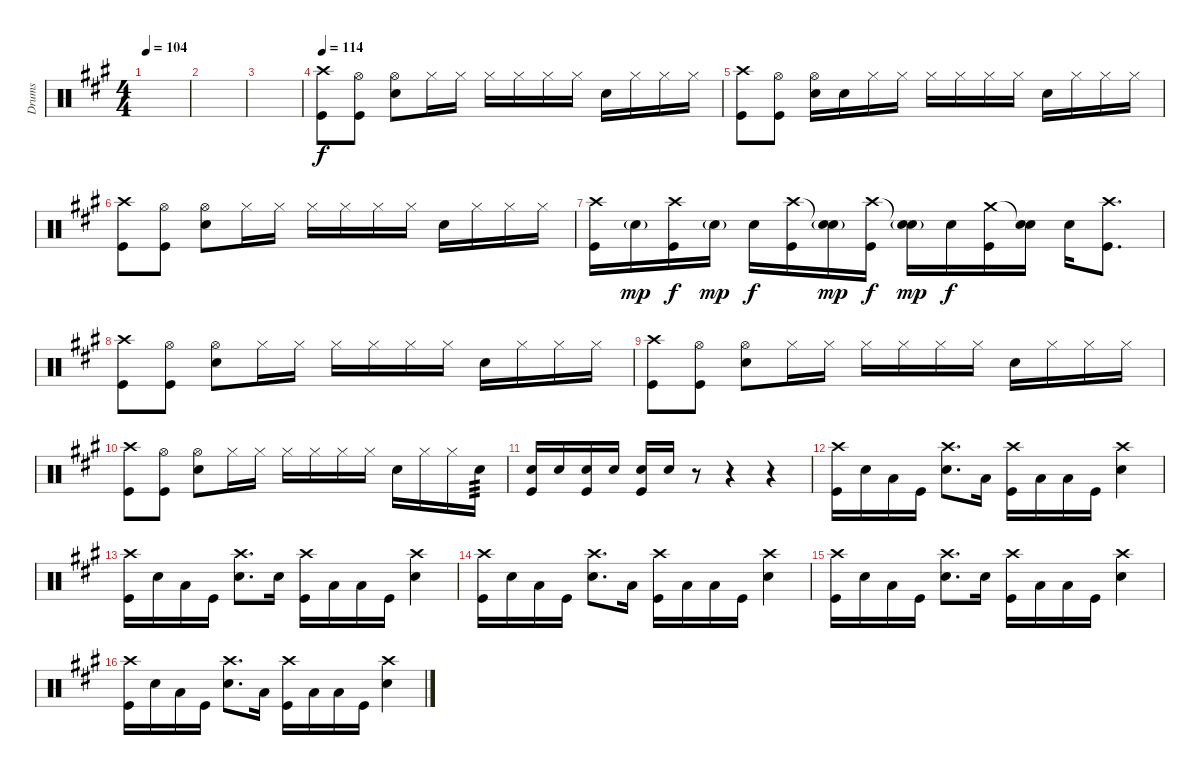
\track ("Drums" "Drums") {instrument percussion}
\staff {score}
\articulation defaults
\ts (4 4)
\tempo 104
\clef neutral
\ks a
|
|
|
\tempo 114
("Crash high (hit)" "Kick (hit)").8 ("Hi-Hat (open)" "Kick (hit)").8 ("Hi-Hat (open)" "Electric Snare (hit)").8 "Hi-Hat (closed)".16 "Hi-Hat (closed)".16 "Hi-Hat (closed)".16 "Hi-Hat (closed)".16 "Hi-Hat (closed)".16 "Hi-Hat (closed)".16 "Electric Snare (hit)".16 "Hi-Hat (closed)".16 "Hi-Hat (closed)".16 "Hi-Hat (closed)".16 |
("Crash high (hit)" "Kick (hit)").8 ("Hi-Hat (open)" "Kick (hit)").8 ("Hi-Hat (open)" "Electric Snare (hit)").16 "Electric Snare (hit)".16 "Hi-Hat (closed)".16 "Hi-Hat (closed)".16 "Hi-Hat (closed)".16 "Hi-Hat (closed)".16 "Hi-Hat (closed)".16 "Hi-Hat (closed)".16 "Electric Snare (hit)".16 "Hi-Hat (closed)".16 "Hi-Hat (closed)".16 "Hi-Hat (closed)".16 |
("Crash high (hit)" "Kick (hit)").8 ("Hi-Hat (open)" "Kick (hit)").8 ("Hi-Hat (open)" "Electric Snare (hit)").8 "Hi-Hat (closed)".16 "Hi-Hat (closed)".16 "Hi-Hat (closed)".16 "Hi-Hat (closed)".16 "Hi-Hat (closed)".16 "Hi-Hat (closed)".16 "Electric Snare (hit)".16 "Hi-Hat (closed)".16 "Hi-Hat (closed)".16 "Hi-Hat (closed)".16 |
("Crash high (hit)" "Kick (hit)").16 "Electric Snare (hit)"{g}.16{dy mp} ("Crash high (hit)" "Kick (hit)").16{dy f} "Electric Snare (hit)"{g}.16{dy mp} "Electric Snare (hit)".16{dy f} ("Crash high (hit)" "Kick (hit)").16 ("Snare (hit)"{t} "Electric Snare (hit)"{g}).16{dy mp} ("Crash high (hit)" "Kick (hit)").16{dy f} ("Snare (hit)"{t} "Electric Snare (hit)"{g}).16{dy mp} "Electric Snare (hit)".16{dy f} ("Crash medium (hit)" "Kick (hit)").16 ("Snare (hit)"{t} "Electric Snare (hit)").16 "Electric Snare (hit)".16 ("Crash high (hit)" "Kick (hit)").8{d} |
("Crash high (hit)" "Kick (hit)").8 ("Hi-Hat (open)" "Kick (hit)").8 ("Hi-Hat (open)" "Electric Snare (hit)").8 "Hi-Hat (closed)".16 "Hi-Hat (closed)".16 "Hi-Hat (closed)".16 "Hi-Hat (closed)".16 "Hi-Hat (closed)".16 "Hi-Hat (closed)".16 "Electric Snare (hit)".16 "Hi-Hat (closed)".16 "Hi-Hat (closed)".16 "Hi-Hat (closed)".16 |
("Crash high (hit)" "Kick (hit)").8 ("Hi-Hat (open)" "Kick (hit)").8 ("Hi-Hat (open)" "Electric Snare (hit)").8 "Hi-Hat (closed)".16 "Hi-Hat (closed)".16 "Hi-Hat (closed)".16 "Hi-Hat (closed)".16 "Hi-Hat (closed)".16 "Hi-Hat (closed)".16 "Electric Snare (hit)".16 "Hi-Hat (closed)".16 "Hi-Hat (closed)".16 "Hi-Hat (closed)".16 |
("Crash high (hit)" "Kick (hit)").8 ("Hi-Hat (open)" "Kick (hit)").8 ("Hi-Hat (open)" "Electric Snare (hit)").8 "Hi-Hat (closed)".16 "Hi-Hat (closed)".16 "Hi-Hat (closed)".16 "Hi-Hat (closed)".16 "Hi-Hat (closed)".16 "Hi-Hat (closed)".16 "Electric Snare (hit)".16 "Hi-Hat (closed)".16 "Hi-Hat (closed)".16 "Electric Snare (hit)".16{tp 3} |
("Electric Snare (hit)" "Kick (hit)").16 "Electric Snare (hit)".16 ("Electric Snare (hit)" "Kick (hit)").16 "Electric Snare (hit)".16 ("Electric Snare (hit)" "Kick (hit)").16 "Electric Snare (hit)".16 r.8 r.4 r.4 |
("Crash high (hit)" "Kick (hit)").16 "Electric Snare (hit)".16 "Low Tom (hit)".16 "Kick (hit)".16 ("Crash high (hit)" "Electric Snare (hit)").8{d} "Low Tom (hit)".16 ("Crash high (hit)" "Kick (hit)").16 "Low Tom (hit)".16 "Low Tom (hit)".16 "Kick (hit)".16 ("Crash high (hit)" "Electric Snare (hit)").4 |
("Crash high (hit)" "Kick (hit)").16 "Electric Snare (hit)".16 "Low Tom (hit)".16 "Kick (hit)".16 ("Crash high (hit)" "Electric Snare (hit)").8{d} "Electric Snare (hit)".16 ("Crash high (hit)" "Kick (hit)").16 "Low Tom (hit)".16 "Low Tom (hit)".16 "Kick (hit)".16 ("Crash high (hit)" "Electric Snare (hit)").4 |
("Crash high (hit)" "Kick (hit)").16 "Electric Snare (hit)".16 "Low Tom (hit)".16 "Kick (hit)".16 ("Crash high (hit)" "Electric Snare (hit)").8{d} "Low Tom (hit)".16 ("Crash high (hit)" "Kick (hit)").16 "Low Tom (hit)".16 "Low Tom (hit)".16 "Kick (hit)".16 ("Crash high (hit)" "Electric Snare (hit)").4 |
("Crash high (hit)" "Kick (hit)").16 "Electric Snare (hit)".16 "Low Tom (hit)".16 "Kick (hit)".16 ("Crash high (hit)" "Electric Snare (hit)").8{d} "Electric Snare (hit)".16 ("Crash high (hit)" "Kick (hit)").16 "Low Tom (hit)".16 "Low Tom (hit)".16 "Kick (hit)".16 ("Crash high (hit)" "Electric Snare (hit)").4 |
("Crash high (hit)" "Kick (hit)").16 "Electric Snare (hit)".16 "Low Tom (hit)".16 "Kick (hit)".16 ("Crash high (hit)" "Electric Snare (hit)").8{d} "Low Tom (hit)".16 ("Crash high (hit)" "Kick (hit)").16 "Low Tom (hit)".16 "Low Tom (hit)".16 "Kick (hit)".16 ("Crash high (hit)" "Electric Snare (hit)").4
